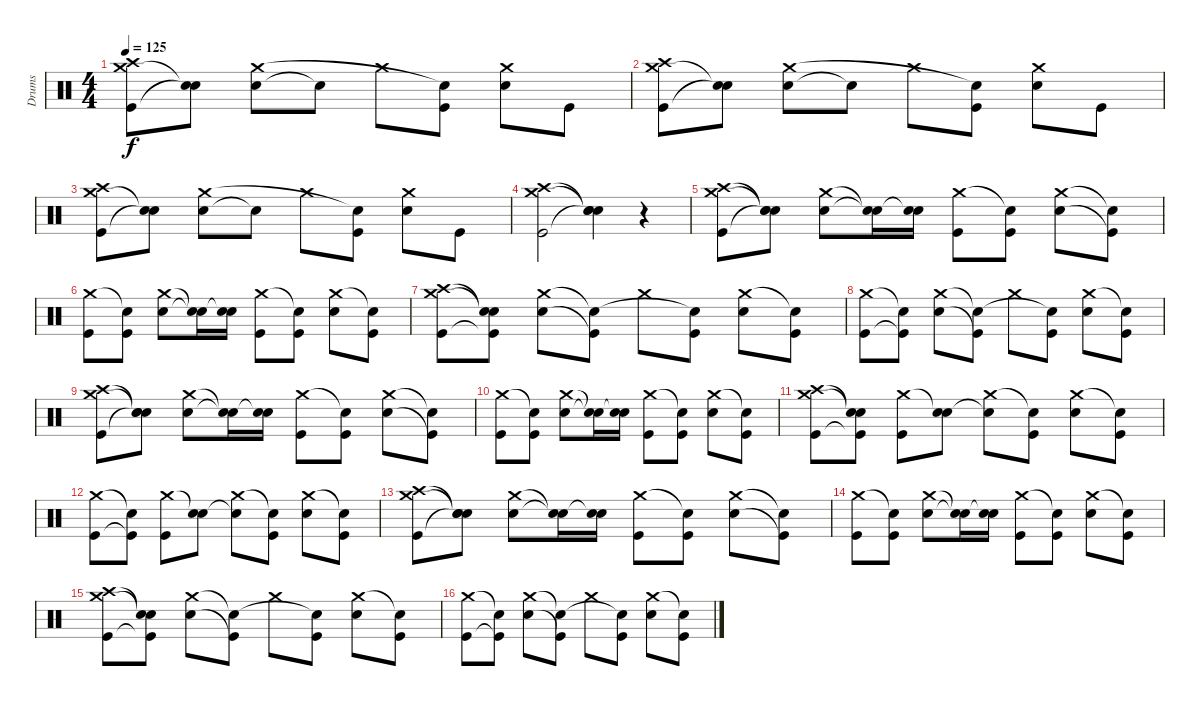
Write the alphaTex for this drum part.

\track ("Drums" "Drums") {instrument percussion}
\staff {score}
\articulation defaults
\ts (4 4)
\tempo 125
\clef neutral
\ks c
("Kick (hit)" "Crash medium (hit)" "Crash high (hit)").8{dy f} ("Snare (hit)"{t} "Snare (hit)"{t}).8 ("Snare (hit) 2" "Crash medium (hit)").8 "Snare (hit)"{t}.8 "Crash medium (hit)".8 ("Kick (hit)" "Snare (hit)"{t}).8 ("Snare (hit) 2" "Crash medium (hit)").8 "Kick (hit)".8 |
("Kick (hit)" "Crash medium (hit)" "Crash high (hit)").8 ("Snare (hit)"{t} "Snare (hit)"{t}).8 ("Snare (hit) 2" "Crash medium (hit)").8 "Snare (hit)"{t}.8 "Crash medium (hit)".8 ("Kick (hit)" "Snare (hit)"{t}).8 ("Snare (hit) 2" "Crash medium (hit)").8 "Kick (hit)".8 |
("Kick (hit)" "Crash medium (hit)" "Crash high (hit)").8 ("Snare (hit)"{t} "Snare (hit)"{t}).8 ("Snare (hit) 2" "Crash medium (hit)").8 "Snare (hit)"{t}.8 "Crash medium (hit)".8 ("Kick (hit)" "Snare (hit)"{t}).8 ("Snare (hit) 2" "Crash medium (hit)").8 "Kick (hit)".8 |
("Kick (hit)" "Crash medium (hit)" "Crash high (hit)").2 ("Snare (hit)"{t} "Snare (hit)"{t} "Snare (hit)"{t}).4 r.4 |
("Kick (hit)" "Crash medium (hit)" "Crash high (hit)").8 ("Snare (hit)"{t} "Snare (hit)"{t} "Snare (hit)"{t}).8 ("Snare (hit) 2" "Crash medium (hit)").8 ("Snare (hit)"{t} "Snare (hit)"{t}).16 ("Snare (hit) 2" "Snare (hit)"{t}).16 ("Kick (hit)" "Crash medium (hit)").8 ("Kick (hit)" "Snare (hit)"{t}).8 ("Snare (hit) 2" "Crash medium (hit)").8 ("Kick (hit)"{t} "Snare (hit)"{t}).8 |
("Kick (hit)" "Crash medium (hit)").8 ("Kick (hit)" "Snare (hit)"{t}).8 ("Snare (hit) 2" "Crash medium (hit)").8 ("Snare (hit)"{t} "Snare (hit)"{t}).16 ("Snare (hit) 2" "Snare (hit)"{t}).16 ("Kick (hit)" "Crash medium (hit)").8 ("Kick (hit)" "Snare (hit)"{t}).8 ("Snare (hit) 2" "Crash medium (hit)").8 ("Kick (hit)" "Snare (hit)"{t}).8 |
("Kick (hit)" "Crash medium (hit)" "Crash high (hit)").8 ("Kick (hit)"{t} "Snare (hit)"{t} "Snare (hit)"{t}).8 ("Snare (hit) 2" "Crash medium (hit)").8 ("Kick (hit)"{t} "Snare (hit)"{t}).8 "Crash medium (hit)".8 ("Kick (hit)" "Snare (hit)"{t}).8 ("Snare (hit) 2" "Crash medium (hit)").8 ("Kick (hit)" "Snare (hit)"{t}).8 |
("Kick (hit)" "Crash medium (hit)").8 ("Kick (hit)"{t} "Snare (hit)"{t}).8 ("Snare (hit) 2" "Crash medium (hit)").8 ("Kick (hit)"{t} "Snare (hit)"{t}).8 "Crash medium (hit)".8 ("Kick (hit)" "Snare (hit)"{t}).8 ("Snare (hit) 2" "Crash medium (hit)").8 ("Kick (hit)" "Snare (hit)"{t}).8 |
("Kick (hit)" "Crash medium (hit)" "Crash high (hit)").8 ("Snare (hit)"{t} "Snare (hit)"{t} "Snare (hit)"{t}).8 ("Snare (hit) 2" "Crash medium (hit)").8 ("Snare (hit)"{t} "Snare (hit)"{t}).16 ("Snare (hit) 2" "Snare (hit)"{t}).16 ("Kick (hit)" "Crash medium (hit)").8 ("Kick (hit)" "Snare (hit)"{t}).8 ("Snare (hit) 2" "Crash medium (hit)").8 ("Kick (hit)"{t} "Snare (hit)"{t}).8 |
("Kick (hit)" "Crash medium (hit)").8 ("Kick (hit)" "Snare (hit)"{t}).8 ("Snare (hit) 2" "Crash medium (hit)").8 ("Snare (hit)"{t} "Snare (hit)"{t}).16 ("Snare (hit) 2" "Snare (hit)"{t}).16 ("Kick (hit)" "Crash medium (hit)").8 ("Kick (hit)" "Snare (hit)"{t}).8 ("Snare (hit) 2" "Crash medium (hit)").8 ("Kick (hit)" "Snare (hit)"{t}).8 |
("Kick (hit)" "Crash medium (hit)" "Crash high (hit)").8 ("Kick (hit)"{t} "Snare (hit)"{t} "Snare (hit)"{t}).8 ("Kick (hit)" "Crash medium (hit)").8 ("Snare (hit) 2" "Snare (hit)"{t}).8 ("Snare (hit)"{t} "Crash medium (hit)").8 ("Kick (hit)" "Snare (hit)"{t}).8 ("Snare (hit) 2" "Crash medium (hit)").8 ("Kick (hit)" "Snare (hit)"{t}).8 |
("Kick (hit)" "Crash medium (hit)").8 ("Kick (hit)"{t} "Snare (hit)"{t}).8 ("Kick (hit)" "Crash medium (hit)").8 ("Snare (hit) 2" "Snare (hit)"{t}).8 ("Snare (hit)"{t} "Crash medium (hit)").8 ("Kick (hit)" "Snare (hit)"{t}).8 ("Snare (hit) 2" "Crash medium (hit)").8 ("Kick (hit)" "Snare (hit)"{t}).8 |
("Kick (hit)" "Crash medium (hit)" "Crash high (hit)").8 ("Snare (hit)"{t} "Snare (hit)"{t} "Snare (hit)"{t}).8 ("Snare (hit) 2" "Crash medium (hit)").8 ("Snare (hit)"{t} "Snare (hit)"{t}).16 ("Snare (hit) 2" "Snare (hit)"{t}).16 ("Kick (hit)" "Crash medium (hit)").8 ("Kick (hit)" "Snare (hit)"{t}).8 ("Snare (hit) 2" "Crash medium (hit)").8 ("Kick (hit)"{t} "Snare (hit)"{t}).8 |
("Kick (hit)" "Crash medium (hit)").8 ("Kick (hit)" "Snare (hit)"{t}).8 ("Snare (hit) 2" "Crash medium (hit)").8 ("Snare (hit)"{t} "Snare (hit)"{t}).16 ("Snare (hit) 2" "Snare (hit)"{t}).16 ("Kick (hit)" "Crash medium (hit)").8 ("Kick (hit)" "Snare (hit)"{t}).8 ("Snare (hit) 2" "Crash medium (hit)").8 ("Kick (hit)" "Snare (hit)"{t}).8 |
("Kick (hit)" "Crash medium (hit)" "Crash high (hit)").8 ("Kick (hit)"{t} "Snare (hit)"{t} "Snare (hit)"{t}).8 ("Snare (hit) 2" "Crash medium (hit)").8 ("Kick (hit)"{t} "Snare (hit)"{t}).8 "Crash medium (hit)".8 ("Kick (hit)" "Snare (hit)"{t}).8 ("Snare (hit) 2" "Crash medium (hit)").8 ("Kick (hit)" "Snare (hit)"{t}).8 |
("Kick (hit)" "Crash medium (hit)").8 ("Kick (hit)"{t} "Snare (hit)"{t}).8 ("Snare (hit) 2" "Crash medium (hit)").8 ("Kick (hit)"{t} "Snare (hit)"{t}).8 "Crash medium (hit)".8 ("Kick (hit)" "Snare (hit)"{t}).8 ("Snare (hit) 2" "Crash medium (hit)").8 ("Kick (hit)" "Snare (hit)"{t}).8
